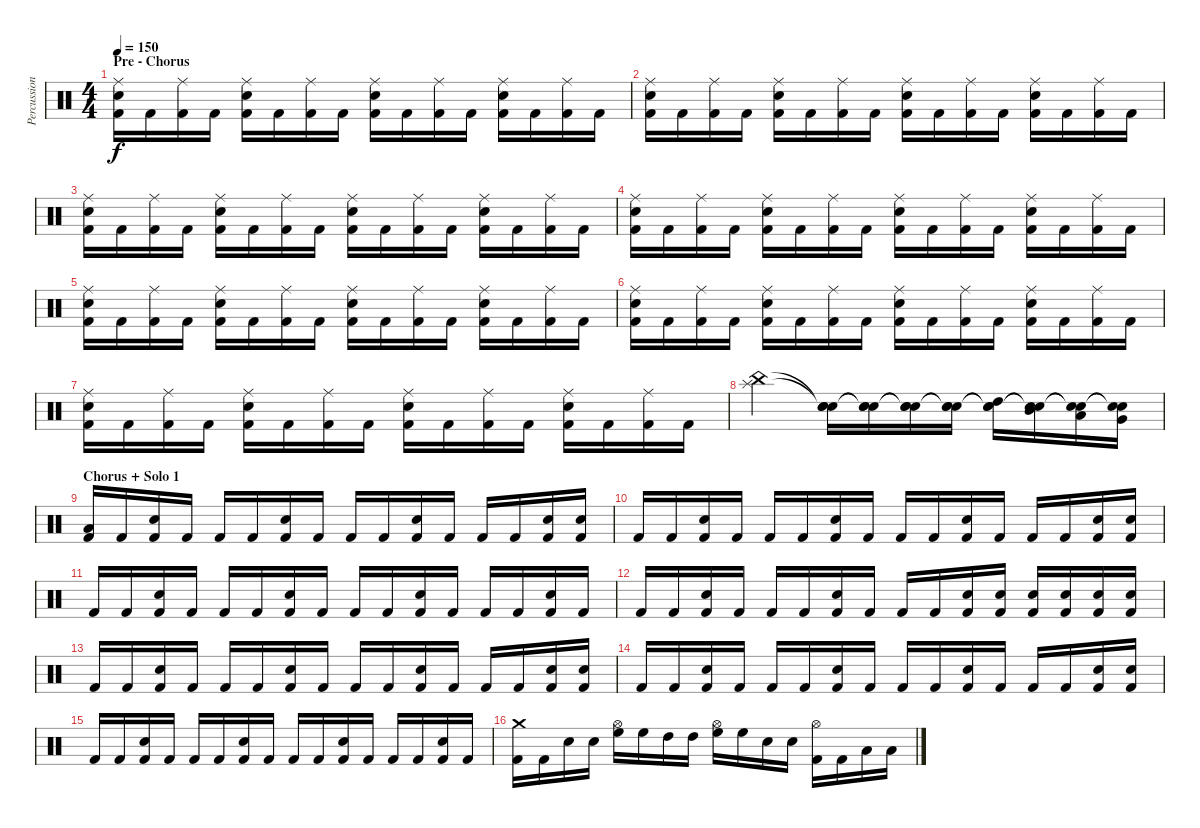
\track ("Percussion" "Percussion") {instrument percussion}
\staff {score}
\articulation defaults
\ts (4 4)
\section ("" "Pre - Chorus")
\tempo 150
\clef neutral
\ks c
("Ride (middle)" "Snare (hit) 2" "Kick (hit) 2").16{dy f} "Kick (hit) 2".16 ("Ride (middle)" "Kick (hit) 2").16 "Kick (hit) 2".16 ("Ride (middle)" "Snare (hit) 2" "Kick (hit) 2").16 "Kick (hit) 2".16 ("Ride (middle)" "Kick (hit) 2").16 "Kick (hit) 2".16 ("Ride (middle)" "Snare (hit) 2" "Kick (hit) 2").16 "Kick (hit) 2".16 ("Ride (middle)" "Kick (hit) 2").16 "Kick (hit) 2".16 ("Ride (middle)" "Snare (hit) 2" "Kick (hit) 2").16 "Kick (hit) 2".16 ("Ride (middle)" "Kick (hit) 2").16 "Kick (hit) 2".16 |
("Ride (middle)" "Snare (hit) 2" "Kick (hit) 2").16 "Kick (hit) 2".16 ("Ride (middle)" "Kick (hit) 2").16 "Kick (hit) 2".16 ("Ride (middle)" "Snare (hit) 2" "Kick (hit) 2").16 "Kick (hit) 2".16 ("Ride (middle)" "Kick (hit) 2").16 "Kick (hit) 2".16 ("Ride (middle)" "Snare (hit) 2" "Kick (hit) 2").16 "Kick (hit) 2".16 ("Ride (middle)" "Kick (hit) 2").16 "Kick (hit) 2".16 ("Ride (middle)" "Snare (hit) 2" "Kick (hit) 2").16 "Kick (hit) 2".16 ("Ride (middle)" "Kick (hit) 2").16 "Kick (hit) 2".16 |
("Ride (middle)" "Snare (hit) 2" "Kick (hit) 2").16 "Kick (hit) 2".16 ("Ride (middle)" "Kick (hit) 2").16 "Kick (hit) 2".16 ("Ride (middle)" "Snare (hit) 2" "Kick (hit) 2").16 "Kick (hit) 2".16 ("Ride (middle)" "Kick (hit) 2").16 "Kick (hit) 2".16 ("Ride (middle)" "Snare (hit) 2" "Kick (hit) 2").16 "Kick (hit) 2".16 ("Ride (middle)" "Kick (hit) 2").16 "Kick (hit) 2".16 ("Ride (middle)" "Snare (hit) 2" "Kick (hit) 2").16 "Kick (hit) 2".16 ("Ride (middle)" "Kick (hit) 2").16 "Kick (hit) 2".16 |
("Ride (middle)" "Snare (hit) 2" "Kick (hit) 2").16 "Kick (hit) 2".16 ("Ride (middle)" "Kick (hit) 2").16 "Kick (hit) 2".16 ("Ride (middle)" "Snare (hit) 2" "Kick (hit) 2").16 "Kick (hit) 2".16 ("Ride (middle)" "Kick (hit) 2").16 "Kick (hit) 2".16 ("Ride (middle)" "Snare (hit) 2" "Kick (hit) 2").16 "Kick (hit) 2".16 ("Ride (middle)" "Kick (hit) 2").16 "Kick (hit) 2".16 ("Ride (middle)" "Snare (hit) 2" "Kick (hit) 2").16 "Kick (hit) 2".16 ("Ride (middle)" "Kick (hit) 2").16 "Kick (hit) 2".16 |
("Ride (middle)" "Snare (hit) 2" "Kick (hit) 2").16 "Kick (hit) 2".16 ("Ride (middle)" "Kick (hit) 2").16 "Kick (hit) 2".16 ("Ride (middle)" "Snare (hit) 2" "Kick (hit) 2").16 "Kick (hit) 2".16 ("Ride (middle)" "Kick (hit) 2").16 "Kick (hit) 2".16 ("Ride (middle)" "Snare (hit) 2" "Kick (hit) 2").16 "Kick (hit) 2".16 ("Ride (middle)" "Kick (hit) 2").16 "Kick (hit) 2".16 ("Ride (middle)" "Snare (hit) 2" "Kick (hit) 2").16 "Kick (hit) 2".16 ("Ride (middle)" "Kick (hit) 2").16 "Kick (hit) 2".16 |
("Ride (middle)" "Snare (hit) 2" "Kick (hit) 2").16 "Kick (hit) 2".16 ("Ride (middle)" "Kick (hit) 2").16 "Kick (hit) 2".16 ("Ride (middle)" "Snare (hit) 2" "Kick (hit) 2").16 "Kick (hit) 2".16 ("Ride (middle)" "Kick (hit) 2").16 "Kick (hit) 2".16 ("Ride (middle)" "Snare (hit) 2" "Kick (hit) 2").16 "Kick (hit) 2".16 ("Ride (middle)" "Kick (hit) 2").16 "Kick (hit) 2".16 ("Ride (middle)" "Snare (hit) 2" "Kick (hit) 2").16 "Kick (hit) 2".16 ("Ride (middle)" "Kick (hit) 2").16 "Kick (hit) 2".16 |
("Ride (middle)" "Snare (hit) 2" "Kick (hit) 2").16 "Kick (hit) 2".16 ("Ride (middle)" "Kick (hit) 2").16 "Kick (hit) 2".16 ("Ride (middle)" "Snare (hit) 2" "Kick (hit) 2").16 "Kick (hit) 2".16 ("Ride (middle)" "Kick (hit) 2").16 "Kick (hit) 2".16 ("Ride (middle)" "Snare (hit) 2" "Kick (hit) 2").16 "Kick (hit) 2".16 ("Ride (middle)" "Kick (hit) 2").16 "Kick (hit) 2".16 ("Ride (middle)" "Snare (hit) 2" "Kick (hit) 2").16 "Kick (hit) 2".16 ("Ride (middle)" "Kick (hit) 2").16 "Kick (hit) 2".16 |
("Splash (hit)" "China (hit)").2 ("Snare (hit)"{t} "Snare (hit)"{t} "Snare (hit) 2").16 ("Snare (hit)"{t} "Snare (hit)"{t} "Snare (hit) 2").16 ("Snare (hit)"{t} "Snare (hit)"{t} "Snare (hit) 2").16 ("Snare (hit)"{t} "Snare (hit)"{t} "Snare (hit) 2").16 ("Snare (hit)"{t} "Snare (hit)"{t} "High Tom (hit)").16 ("Snare (hit)"{t} "Snare (hit)"{t} "Mid Tom (hit)").16 ("Snare (hit)"{t} "Snare (hit)"{t} "Low Tom (hit)").16 ("Snare (hit)"{t} "Snare (hit)"{t} "Very Low Tom (hit)").16 |
\section ("" "Chorus + Solo 1")
("Low Floor Tom (hit)" "Kick (hit) 2").16 "Kick (hit) 2".16 ("Snare (hit) 2" "Kick (hit) 2").16 "Kick (hit) 2".16 "Kick (hit) 2".16 "Kick (hit) 2".16 ("Snare (hit) 2" "Kick (hit) 2").16 "Kick (hit) 2".16 "Kick (hit) 2".16 "Kick (hit) 2".16 ("Snare (hit) 2" "Kick (hit) 2").16 "Kick (hit) 2".16 "Kick (hit) 2".16 "Kick (hit) 2".16 ("Snare (hit) 2" "Kick (hit) 2").16 ("Snare (hit) 2" "Kick (hit) 2").16 |
"Kick (hit) 2".16 "Kick (hit) 2".16 ("Snare (hit) 2" "Kick (hit) 2").16 "Kick (hit) 2".16 "Kick (hit) 2".16 "Kick (hit) 2".16 ("Snare (hit) 2" "Kick (hit) 2").16 "Kick (hit) 2".16 "Kick (hit) 2".16 "Kick (hit) 2".16 ("Snare (hit) 2" "Kick (hit) 2").16 "Kick (hit) 2".16 "Kick (hit) 2".16 "Kick (hit) 2".16 ("Snare (hit) 2" "Kick (hit) 2").16 ("Snare (hit) 2" "Kick (hit) 2").16 |
"Kick (hit) 2".16 "Kick (hit) 2".16 ("Snare (hit) 2" "Kick (hit) 2").16 "Kick (hit) 2".16 "Kick (hit) 2".16 "Kick (hit) 2".16 ("Snare (hit) 2" "Kick (hit) 2").16 "Kick (hit) 2".16 "Kick (hit) 2".16 "Kick (hit) 2".16 ("Snare (hit) 2" "Kick (hit) 2").16 "Kick (hit) 2".16 "Kick (hit) 2".16 "Kick (hit) 2".16 ("Snare (hit) 2" "Kick (hit) 2").16 "Kick (hit) 2".16 |
"Kick (hit) 2".16 "Kick (hit) 2".16 ("Snare (hit) 2" "Kick (hit) 2").16 "Kick (hit) 2".16 "Kick (hit) 2".16 "Kick (hit) 2".16 ("Snare (hit) 2" "Kick (hit) 2").16 "Kick (hit) 2".16 "Kick (hit) 2".16 "Kick (hit) 2".16 ("Snare (hit) 2" "Kick (hit) 2").16 ("Snare (hit) 2" "Kick (hit) 2").16 ("Snare (hit) 2" "Kick (hit) 2").16 ("Snare (hit) 2" "Kick (hit) 2").16 ("Snare (hit) 2" "Kick (hit) 2").16 ("Snare (hit) 2" "Kick (hit) 2").16 |
"Kick (hit) 2".16 "Kick (hit) 2".16 ("Snare (hit) 2" "Kick (hit) 2").16 "Kick (hit) 2".16 "Kick (hit) 2".16 "Kick (hit) 2".16 ("Snare (hit) 2" "Kick (hit) 2").16 "Kick (hit) 2".16 "Kick (hit) 2".16 "Kick (hit) 2".16 ("Snare (hit) 2" "Kick (hit) 2").16 "Kick (hit) 2".16 "Kick (hit) 2".16 "Kick (hit) 2".16 ("Snare (hit) 2" "Kick (hit) 2").16 ("Snare (hit) 2" "Kick (hit) 2").16 |
"Kick (hit) 2".16 "Kick (hit) 2".16 ("Snare (hit) 2" "Kick (hit) 2").16 "Kick (hit) 2".16 "Kick (hit) 2".16 "Kick (hit) 2".16 ("Snare (hit) 2" "Kick (hit) 2").16 "Kick (hit) 2".16 "Kick (hit) 2".16 "Kick (hit) 2".16 ("Snare (hit) 2" "Kick (hit) 2").16 "Kick (hit) 2".16 "Kick (hit) 2".16 "Kick (hit) 2".16 ("Snare (hit) 2" "Kick (hit) 2").16 ("Snare (hit) 2" "Kick (hit) 2").16 |
"Kick (hit) 2".16 "Kick (hit) 2".16 ("Snare (hit) 2" "Kick (hit) 2").16 "Kick (hit) 2".16 "Kick (hit) 2".16 "Kick (hit) 2".16 ("Snare (hit) 2" "Kick (hit) 2").16 "Kick (hit) 2".16 "Kick (hit) 2".16 "Kick (hit) 2".16 ("Snare (hit) 2" "Kick (hit) 2").16 "Kick (hit) 2".16 "Kick (hit) 2".16 "Kick (hit) 2".16 ("Snare (hit) 2" "Kick (hit) 2").16 "Kick (hit) 2".16 |
("Kick (hit) 2" "Crash medium (hit)").16 "Kick (hit) 2".16 "Snare (hit) 2".16 "Snare (hit) 2".16 ("High Floor Tom (hit)" "Hi-Hat (open)").16 "High Floor Tom (hit)".16 "High Tom (hit)".16 "High Tom (hit)".16 ("High Floor Tom (hit)" "Hi-Hat (open)").16 "High Floor Tom (hit)".16 "Snare (hit) 2".16 "Snare (hit) 2".16 ("Kick (hit) 2" "Hi-Hat (open)").16 "Kick (hit) 2".16 "Low Tom (hit)".16 "Low Tom (hit)".16
